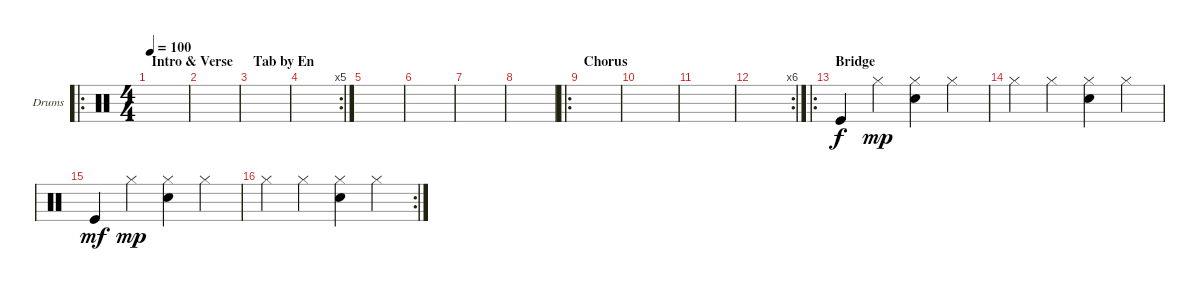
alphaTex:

\defaultSystemsLayout 4
\bracketExtendMode groupsimilarinstruments
\firstSystemTrackNameOrientation horizontal
\otherSystemsTrackNameOrientation horizontal
\track ("Drumkit" "Drums") {instrument percussion}
\staff {score}
\articulation defaults
\ro
\ts (4 4)
\section ("" "Intro & Verse")
\tempo 100
\clef neutral
\scale
0.502222
\ks c
|
\scale
0.248889 |
\section ("" "Tab by En")
\scale
0.248889 |
\rc 5
\scale
0.356322 |
\scale
0.321839 |
\scale
0.321839 |
\scale
0.311111 |
\scale
0.311111 |
\ro
\section ("" "Chorus")
\scale
0.377778 |
\scale
0.321839 |
\scale
0.321839 |
\rc 6
\scale
0.356322 |
\ro
\section ("" "Bridge")
\scale
0.377778 "Kick (hit)".4 "Hi-Hat (closed)".4{dy mp} ("Snare (hit) 2" "Hi-Hat (closed)").4 "Hi-Hat (closed)".4 |
\scale
0.311111 "Hi-Hat (closed)".4 "Hi-Hat (closed)".4 ("Snare (hit) 2" "Hi-Hat (closed)").4 "Hi-Hat (closed)".4 |
\scale
0.311111 "Kick (hit)".4{dy mf} "Hi-Hat (closed)".4{dy mp} ("Snare (hit) 2" "Hi-Hat (closed)").4 "Hi-Hat (closed)".4 |
\rc 2
\scale
0.356322 "Hi-Hat (closed)".4 "Hi-Hat (closed)".4 ("Snare (hit) 2" "Hi-Hat (closed)").4 "Hi-Hat (closed)".4
